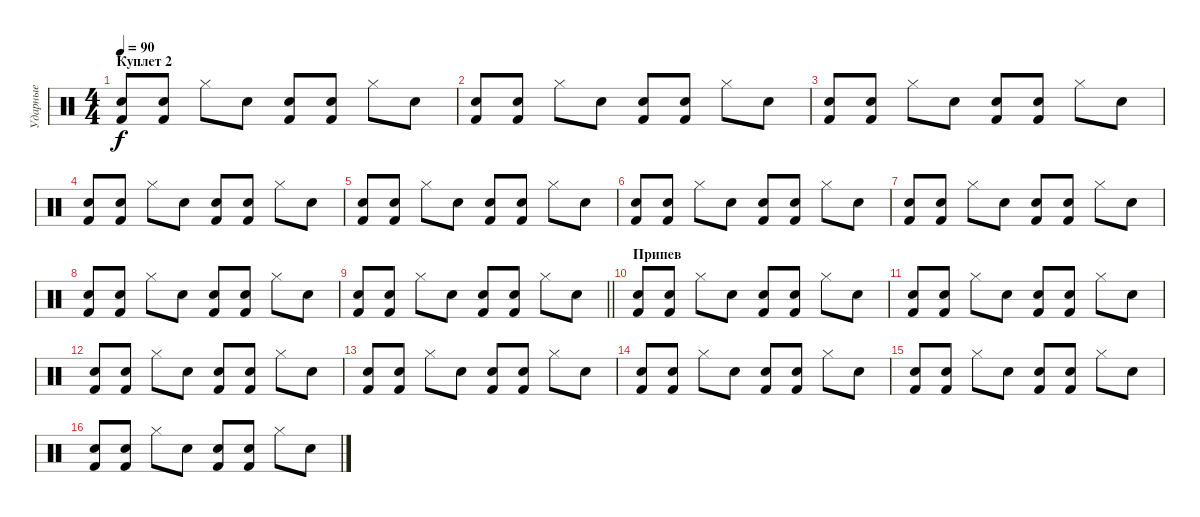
\track ("Ударные" "Ударные") {instrument percussion}
\staff {score}
\articulation defaults
\ts (4 4)
\section ("" "Куплет 2")
\tempo 90
\clef neutral
\ks c
("Kick (hit) 2" "Snare (hit) 2").8{dy f} ("Kick (hit) 2" "Snare (hit) 2").8 "Hi-Hat (closed)".8 "Snare (hit) 2".8 ("Kick (hit) 2" "Snare (hit) 2").8 ("Kick (hit) 2" "Snare (hit) 2").8 "Hi-Hat (closed)".8 "Snare (hit) 2".8 |
("Kick (hit) 2" "Snare (hit) 2").8 ("Kick (hit) 2" "Snare (hit) 2").8 "Hi-Hat (closed)".8 "Snare (hit) 2".8 ("Kick (hit) 2" "Snare (hit) 2").8 ("Kick (hit) 2" "Snare (hit) 2").8 "Hi-Hat (closed)".8 "Snare (hit) 2".8 |
("Kick (hit) 2" "Snare (hit) 2").8 ("Kick (hit) 2" "Snare (hit) 2").8 "Hi-Hat (closed)".8 "Snare (hit) 2".8 ("Kick (hit) 2" "Snare (hit) 2").8 ("Kick (hit) 2" "Snare (hit) 2").8 "Hi-Hat (closed)".8 "Snare (hit) 2".8 |
("Kick (hit) 2" "Snare (hit) 2").8 ("Kick (hit) 2" "Snare (hit) 2").8 "Hi-Hat (closed)".8 "Snare (hit) 2".8 ("Kick (hit) 2" "Snare (hit) 2").8 ("Kick (hit) 2" "Snare (hit) 2").8 "Hi-Hat (closed)".8 "Snare (hit) 2".8 |
("Kick (hit) 2" "Snare (hit) 2").8 ("Kick (hit) 2" "Snare (hit) 2").8 "Hi-Hat (closed)".8 "Snare (hit) 2".8 ("Kick (hit) 2" "Snare (hit) 2").8 ("Kick (hit) 2" "Snare (hit) 2").8 "Hi-Hat (closed)".8 "Snare (hit) 2".8 |
("Kick (hit) 2" "Snare (hit) 2").8 ("Kick (hit) 2" "Snare (hit) 2").8 "Hi-Hat (closed)".8 "Snare (hit) 2".8 ("Kick (hit) 2" "Snare (hit) 2").8 ("Kick (hit) 2" "Snare (hit) 2").8 "Hi-Hat (closed)".8 "Snare (hit) 2".8 |
("Kick (hit) 2" "Snare (hit) 2").8 ("Kick (hit) 2" "Snare (hit) 2").8 "Hi-Hat (closed)".8 "Snare (hit) 2".8 ("Kick (hit) 2" "Snare (hit) 2").8 ("Kick (hit) 2" "Snare (hit) 2").8 "Hi-Hat (closed)".8 "Snare (hit) 2".8 |
("Kick (hit) 2" "Snare (hit) 2").8 ("Kick (hit) 2" "Snare (hit) 2").8 "Hi-Hat (closed)".8 "Snare (hit) 2".8 ("Kick (hit) 2" "Snare (hit) 2").8 ("Kick (hit) 2" "Snare (hit) 2").8 "Hi-Hat (closed)".8 "Snare (hit) 2".8 |
\barLineRight lightlight
("Kick (hit) 2" "Snare (hit) 2").8 ("Kick (hit) 2" "Snare (hit) 2").8 "Hi-Hat (closed)".8 "Snare (hit) 2".8 ("Kick (hit) 2" "Snare (hit) 2").8 ("Kick (hit) 2" "Snare (hit) 2").8 "Hi-Hat (closed)".8 "Snare (hit) 2".8 |
\section ("" "Припев")
("Kick (hit) 2" "Snare (hit) 2").8 ("Kick (hit) 2" "Snare (hit) 2").8 "Hi-Hat (closed)".8 "Snare (hit) 2".8 ("Kick (hit) 2" "Snare (hit) 2").8 ("Kick (hit) 2" "Snare (hit) 2").8 "Hi-Hat (closed)".8 "Snare (hit) 2".8 |
("Kick (hit) 2" "Snare (hit) 2").8 ("Kick (hit) 2" "Snare (hit) 2").8 "Hi-Hat (closed)".8 "Snare (hit) 2".8 ("Kick (hit) 2" "Snare (hit) 2").8 ("Kick (hit) 2" "Snare (hit) 2").8 "Hi-Hat (closed)".8 "Snare (hit) 2".8 |
("Kick (hit) 2" "Snare (hit) 2").8 ("Kick (hit) 2" "Snare (hit) 2").8 "Hi-Hat (closed)".8 "Snare (hit) 2".8 ("Kick (hit) 2" "Snare (hit) 2").8 ("Kick (hit) 2" "Snare (hit) 2").8 "Hi-Hat (closed)".8 "Snare (hit) 2".8 |
("Kick (hit) 2" "Snare (hit) 2").8 ("Kick (hit) 2" "Snare (hit) 2").8 "Hi-Hat (closed)".8 "Snare (hit) 2".8 ("Kick (hit) 2" "Snare (hit) 2").8 ("Kick (hit) 2" "Snare (hit) 2").8 "Hi-Hat (closed)".8 "Snare (hit) 2".8 |
("Kick (hit) 2" "Snare (hit) 2").8 ("Kick (hit) 2" "Snare (hit) 2").8 "Hi-Hat (closed)".8 "Snare (hit) 2".8 ("Kick (hit) 2" "Snare (hit) 2").8 ("Kick (hit) 2" "Snare (hit) 2").8 "Hi-Hat (closed)".8 "Snare (hit) 2".8 |
("Kick (hit) 2" "Snare (hit) 2").8 ("Kick (hit) 2" "Snare (hit) 2").8 "Hi-Hat (closed)".8 "Snare (hit) 2".8 ("Kick (hit) 2" "Snare (hit) 2").8 ("Kick (hit) 2" "Snare (hit) 2").8 "Hi-Hat (closed)".8 "Snare (hit) 2".8 |
("Kick (hit) 2" "Snare (hit) 2").8 ("Kick (hit) 2" "Snare (hit) 2").8 "Hi-Hat (closed)".8 "Snare (hit) 2".8 ("Kick (hit) 2" "Snare (hit) 2").8 ("Kick (hit) 2" "Snare (hit) 2").8 "Hi-Hat (closed)".8 "Snare (hit) 2".8
